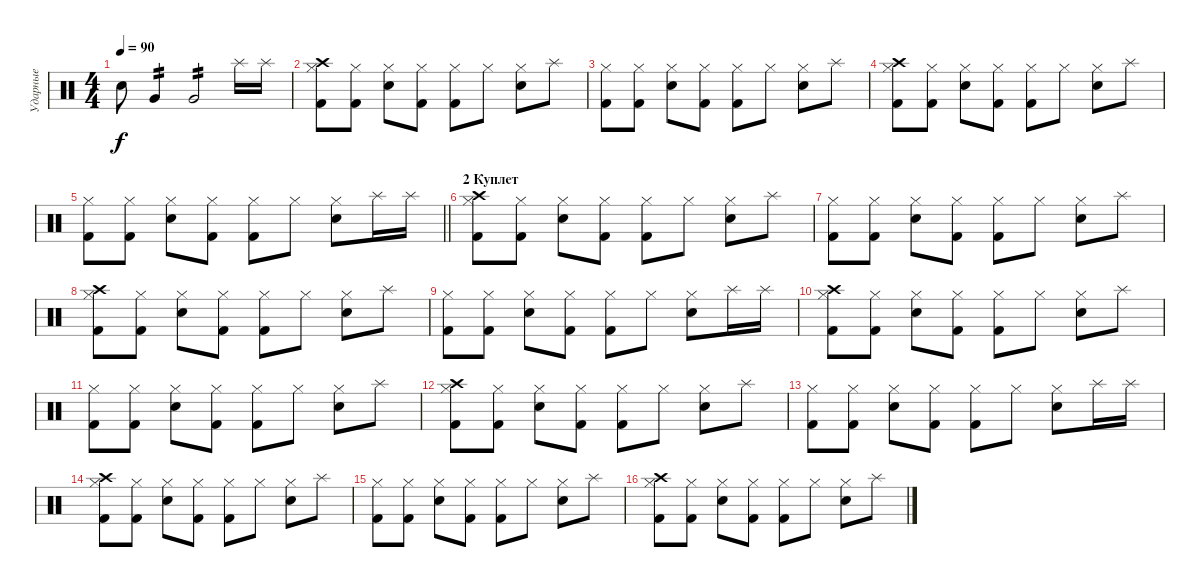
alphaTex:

\track ("Ударные" "Ударные") {instrument percussion}
\staff {score}
\articulation defaults
\ts (4 4)
\tempo 90
\clef neutral
\ks c "Snare (hit) 2".8{dy f} "Very Low Tom (hit)".4{tp 2} "Very Low Tom (hit)".2{tp 2} "Splash (hit)".16 "Splash (hit)".16
|
("Hi-Hat (closed)" "Crash high (hit)" "Kick (hit) 2").8 ("Hi-Hat (closed)" "Kick (hit) 2").8 ("Hi-Hat (closed)" "Snare (hit) 2").8 ("Hi-Hat (closed)" "Kick (hit) 2").8 ("Hi-Hat (closed)" "Kick (hit) 2").8 "Hi-Hat (closed)".8 ("Hi-Hat (closed)" "Snare (hit) 2").8 "Splash (hit)".8 |
("Hi-Hat (closed)" "Kick (hit) 2").8 ("Hi-Hat (closed)" "Kick (hit) 2").8 ("Hi-Hat (closed)" "Snare (hit) 2").8 ("Hi-Hat (closed)" "Kick (hit) 2").8 ("Hi-Hat (closed)" "Kick (hit) 2").8 "Hi-Hat (closed)".8 ("Hi-Hat (closed)" "Snare (hit) 2").8 "Splash (hit)".8 |
("Hi-Hat (closed)" "Crash high (hit)" "Kick (hit) 2").8 ("Hi-Hat (closed)" "Kick (hit) 2").8 ("Hi-Hat (closed)" "Snare (hit) 2").8 ("Hi-Hat (closed)" "Kick (hit) 2").8 ("Hi-Hat (closed)" "Kick (hit) 2").8 "Hi-Hat (closed)".8 ("Hi-Hat (closed)" "Snare (hit) 2").8 "Splash (hit)".8 |
\barLineRight lightlight
("Hi-Hat (closed)" "Kick (hit) 2").8 ("Hi-Hat (closed)" "Kick (hit) 2").8 ("Hi-Hat (closed)" "Snare (hit) 2").8 ("Hi-Hat (closed)" "Kick (hit) 2").8 ("Hi-Hat (closed)" "Kick (hit) 2").8 "Hi-Hat (closed)".8 ("Hi-Hat (closed)" "Snare (hit) 2").8 "Splash (hit)".16 "Splash (hit)".16 |
\section ("" "2 Куплет")
("Hi-Hat (closed)" "Crash high (hit)" "Kick (hit) 2").8 ("Hi-Hat (closed)" "Kick (hit) 2").8 ("Hi-Hat (closed)" "Snare (hit) 2").8 ("Hi-Hat (closed)" "Kick (hit) 2").8 ("Hi-Hat (closed)" "Kick (hit) 2").8 "Hi-Hat (closed)".8 ("Hi-Hat (closed)" "Snare (hit) 2").8 "Splash (hit)".8 |
("Hi-Hat (closed)" "Kick (hit) 2").8 ("Hi-Hat (closed)" "Kick (hit) 2").8 ("Hi-Hat (closed)" "Snare (hit) 2").8 ("Hi-Hat (closed)" "Kick (hit) 2").8 ("Hi-Hat (closed)" "Kick (hit) 2").8 "Hi-Hat (closed)".8 ("Hi-Hat (closed)" "Snare (hit) 2").8 "Splash (hit)".8 |
("Hi-Hat (closed)" "Crash high (hit)" "Kick (hit) 2").8 ("Hi-Hat (closed)" "Kick (hit) 2").8 ("Hi-Hat (closed)" "Snare (hit) 2").8 ("Hi-Hat (closed)" "Kick (hit) 2").8 ("Hi-Hat (closed)" "Kick (hit) 2").8 "Hi-Hat (closed)".8 ("Hi-Hat (closed)" "Snare (hit) 2").8 "Splash (hit)".8 |
("Hi-Hat (closed)" "Kick (hit) 2").8 ("Hi-Hat (closed)" "Kick (hit) 2").8 ("Hi-Hat (closed)" "Snare (hit) 2").8 ("Hi-Hat (closed)" "Kick (hit) 2").8 ("Hi-Hat (closed)" "Kick (hit) 2").8 "Hi-Hat (closed)".8 ("Hi-Hat (closed)" "Snare (hit) 2").8 "Splash (hit)".16 "Splash (hit)".16 |
("Hi-Hat (closed)" "Crash high (hit)" "Kick (hit) 2").8 ("Hi-Hat (closed)" "Kick (hit) 2").8 ("Hi-Hat (closed)" "Snare (hit) 2").8 ("Hi-Hat (closed)" "Kick (hit) 2").8 ("Hi-Hat (closed)" "Kick (hit) 2").8 "Hi-Hat (closed)".8 ("Hi-Hat (closed)" "Snare (hit) 2").8 "Splash (hit)".8 |
("Hi-Hat (closed)" "Kick (hit) 2").8 ("Hi-Hat (closed)" "Kick (hit) 2").8 ("Hi-Hat (closed)" "Snare (hit) 2").8 ("Hi-Hat (closed)" "Kick (hit) 2").8 ("Hi-Hat (closed)" "Kick (hit) 2").8 "Hi-Hat (closed)".8 ("Hi-Hat (closed)" "Snare (hit) 2").8 "Splash (hit)".8 |
("Hi-Hat (closed)" "Crash high (hit)" "Kick (hit) 2").8 ("Hi-Hat (closed)" "Kick (hit) 2").8 ("Hi-Hat (closed)" "Snare (hit) 2").8 ("Hi-Hat (closed)" "Kick (hit) 2").8 ("Hi-Hat (closed)" "Kick (hit) 2").8 "Hi-Hat (closed)".8 ("Hi-Hat (closed)" "Snare (hit) 2").8 "Splash (hit)".8 |
("Hi-Hat (closed)" "Kick (hit) 2").8 ("Hi-Hat (closed)" "Kick (hit) 2").8 ("Hi-Hat (closed)" "Snare (hit) 2").8 ("Hi-Hat (closed)" "Kick (hit) 2").8 ("Hi-Hat (closed)" "Kick (hit) 2").8 "Hi-Hat (closed)".8 ("Hi-Hat (closed)" "Snare (hit) 2").8 "Splash (hit)".16 "Splash (hit)".16 |
("Hi-Hat (closed)" "Crash high (hit)" "Kick (hit) 2").8 ("Hi-Hat (closed)" "Kick (hit) 2").8 ("Hi-Hat (closed)" "Snare (hit) 2").8 ("Hi-Hat (closed)" "Kick (hit) 2").8 ("Hi-Hat (closed)" "Kick (hit) 2").8 "Hi-Hat (closed)".8 ("Hi-Hat (closed)" "Snare (hit) 2").8 "Splash (hit)".8 |
("Hi-Hat (closed)" "Kick (hit) 2").8 ("Hi-Hat (closed)" "Kick (hit) 2").8 ("Hi-Hat (closed)" "Snare (hit) 2").8 ("Hi-Hat (closed)" "Kick (hit) 2").8 ("Hi-Hat (closed)" "Kick (hit) 2").8 "Hi-Hat (closed)".8 ("Hi-Hat (closed)" "Snare (hit) 2").8 "Splash (hit)".8 |
("Hi-Hat (closed)" "Crash high (hit)" "Kick (hit) 2").8 ("Hi-Hat (closed)" "Kick (hit) 2").8 ("Hi-Hat (closed)" "Snare (hit) 2").8 ("Hi-Hat (closed)" "Kick (hit) 2").8 ("Hi-Hat (closed)" "Kick (hit) 2").8 "Hi-Hat (closed)".8 ("Hi-Hat (closed)" "Snare (hit) 2").8 "Splash (hit)".8
